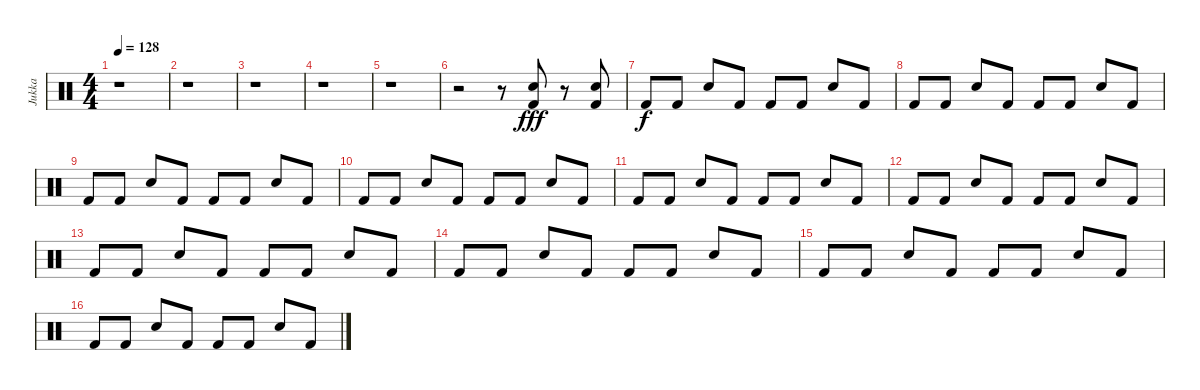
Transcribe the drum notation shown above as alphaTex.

\track ("Jukka" "Jukka") {instrument percussion}
\staff {score}
\articulation defaults
\ts (4 4)
\tempo 128
\clef neutral
\ks c
r.1{dy f} |
r.1 |
r.1 |
r.1 |
r.1 |
r.2 r.8 ("Kick (hit) 2" "Electric Snare (hit)").8{dy fff} r.8 ("Kick (hit) 2" "Electric Snare (hit)").8 |
"Kick (hit) 2".8{dy f} "Kick (hit) 2".8 "Electric Snare (hit)".8 "Kick (hit) 2".8 "Kick (hit) 2".8 "Kick (hit) 2".8 "Electric Snare (hit)".8 "Kick (hit) 2".8 |
"Kick (hit) 2".8 "Kick (hit) 2".8 "Electric Snare (hit)".8 "Kick (hit) 2".8 "Kick (hit) 2".8 "Kick (hit) 2".8 "Electric Snare (hit)".8 "Kick (hit) 2".8 |
"Kick (hit) 2".8 "Kick (hit) 2".8 "Electric Snare (hit)".8 "Kick (hit) 2".8 "Kick (hit) 2".8 "Kick (hit) 2".8 "Electric Snare (hit)".8 "Kick (hit) 2".8 |
"Kick (hit) 2".8 "Kick (hit) 2".8 "Electric Snare (hit)".8 "Kick (hit) 2".8 "Kick (hit) 2".8 "Kick (hit) 2".8 "Electric Snare (hit)".8 "Kick (hit) 2".8 |
"Kick (hit) 2".8 "Kick (hit) 2".8 "Electric Snare (hit)".8 "Kick (hit) 2".8 "Kick (hit) 2".8 "Kick (hit) 2".8 "Electric Snare (hit)".8 "Kick (hit) 2".8 |
"Kick (hit) 2".8 "Kick (hit) 2".8 "Electric Snare (hit)".8 "Kick (hit) 2".8 "Kick (hit) 2".8 "Kick (hit) 2".8 "Electric Snare (hit)".8 "Kick (hit) 2".8 |
"Kick (hit) 2".8 "Kick (hit) 2".8 "Electric Snare (hit)".8 "Kick (hit) 2".8 "Kick (hit) 2".8 "Kick (hit) 2".8 "Electric Snare (hit)".8 "Kick (hit) 2".8 |
"Kick (hit) 2".8 "Kick (hit) 2".8 "Electric Snare (hit)".8 "Kick (hit) 2".8 "Kick (hit) 2".8 "Kick (hit) 2".8 "Electric Snare (hit)".8 "Kick (hit) 2".8 |
"Kick (hit) 2".8 "Kick (hit) 2".8 "Electric Snare (hit)".8 "Kick (hit) 2".8 "Kick (hit) 2".8 "Kick (hit) 2".8 "Electric Snare (hit)".8 "Kick (hit) 2".8 |
"Kick (hit) 2".8 "Kick (hit) 2".8 "Electric Snare (hit)".8 "Kick (hit) 2".8 "Kick (hit) 2".8 "Kick (hit) 2".8 "Electric Snare (hit)".8 "Kick (hit) 2".8
